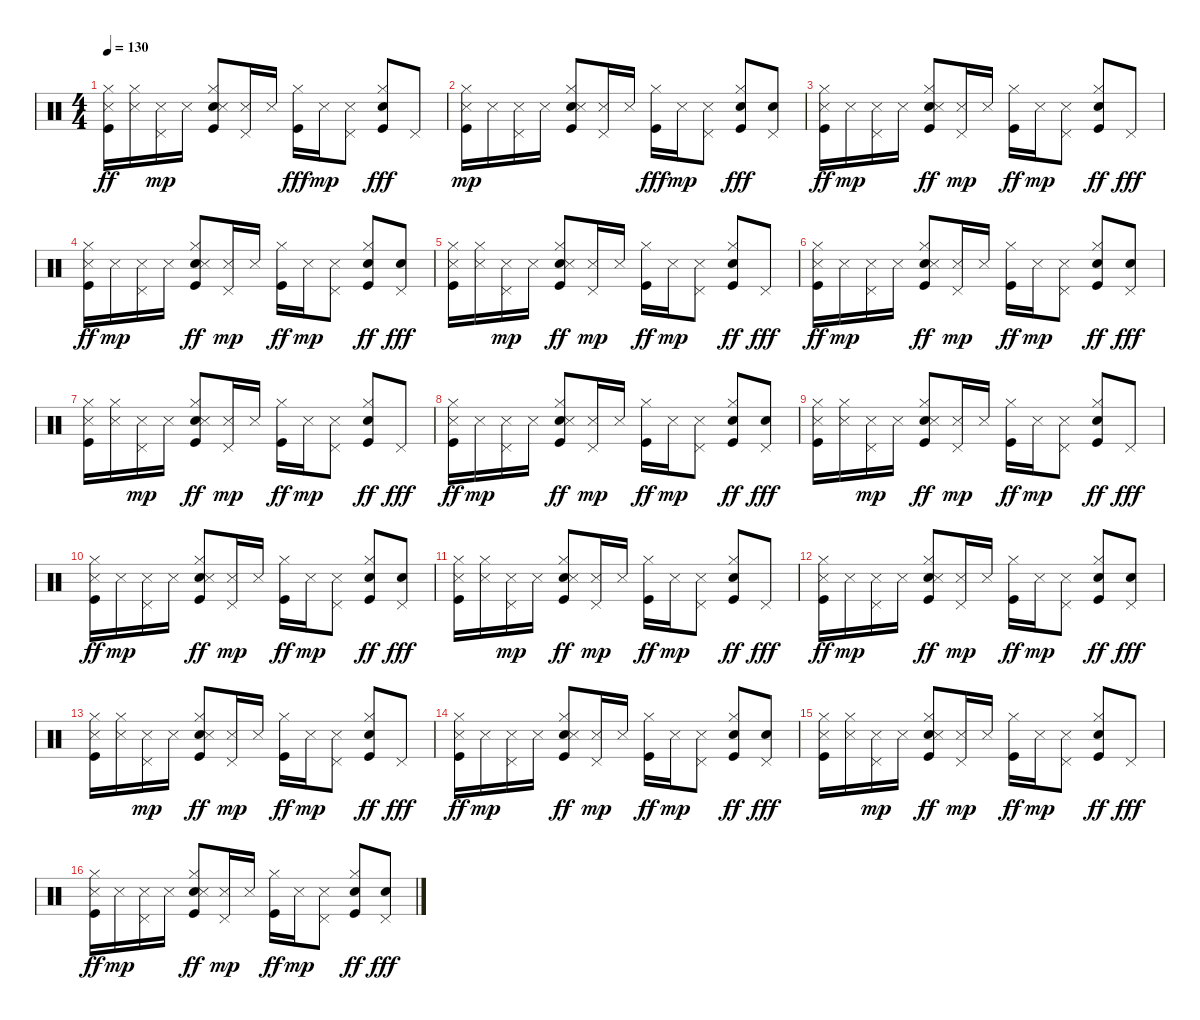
\track "" {instrument percussion}
\staff {score}
\articulation defaults
\ts (4 4)
\tempo 130
\clef neutral
\ks c
("Kick (hit)" "Snare (side stick) 3" "Hi-Hat (closed)").16{dy ff} ("Snare (side stick) 3" "Hi-Hat (closed)").16 ("Pedal Hi-Hat (hit)" "Snare (side stick) 3").16{dy mp} "Snare (side stick) 3".16 ("Hand Clap (hit)" "Kick (hit)" "Snare (side stick) 3" "Hi-Hat (closed)").8 ("Pedal Hi-Hat (hit)" "Snare (side stick) 3").16 "Snare (side stick) 3".16 ("Kick (hit)" "Hi-Hat (closed)").16{dy fff} "Snare (side stick) 3".16{dy mp} ("Pedal Hi-Hat (hit)" "Snare (side stick) 3").8 ("Hand Clap (hit)" "Kick (hit)" "Hi-Hat (closed)").8{dy fff} "Pedal Hi-Hat (hit)".8 |
("Kick (hit)" "Snare (side stick) 3" "Hi-Hat (closed)").16{dy mp} "Snare (side stick) 3".16 ("Pedal Hi-Hat (hit)" "Snare (side stick) 3").16 "Snare (side stick) 3".16 ("Hand Clap (hit)" "Kick (hit)" "Snare (side stick) 3" "Hi-Hat (closed)").8 ("Pedal Hi-Hat (hit)" "Snare (side stick) 3").16 "Snare (side stick) 3".16 ("Kick (hit)" "Hi-Hat (closed)").16{dy fff} "Snare (side stick) 3".16{dy mp} ("Pedal Hi-Hat (hit)" "Snare (side stick) 3").8 ("Hand Clap (hit)" "Kick (hit)" "Hi-Hat (closed)").8{dy fff} ("Hand Clap (hit)" "Pedal Hi-Hat (hit)").8 |
("Kick (hit)" "Snare (side stick) 3" "Hi-Hat (closed)").16{dy ff} "Snare (side stick) 3".16{dy mp} ("Pedal Hi-Hat (hit)" "Snare (side stick) 3").16 "Snare (side stick) 3".16 ("Hand Clap (hit)" "Kick (hit)" "Snare (side stick) 3" "Hi-Hat (closed)").8{dy ff} ("Pedal Hi-Hat (hit)" "Snare (side stick) 3").16{dy mp} "Snare (side stick) 3".16 ("Kick (hit)" "Hi-Hat (closed)").16{dy ff} "Snare (side stick) 3".16{dy mp} ("Pedal Hi-Hat (hit)" "Snare (side stick) 3").8 ("Hand Clap (hit)" "Kick (hit)" "Hi-Hat (closed)").8{dy ff} "Pedal Hi-Hat (hit)".8{dy fff} |
("Kick (hit)" "Snare (side stick) 3" "Hi-Hat (closed)").16{dy ff} "Snare (side stick) 3".16{dy mp} ("Pedal Hi-Hat (hit)" "Snare (side stick) 3").16 "Snare (side stick) 3".16 ("Hand Clap (hit)" "Kick (hit)" "Snare (side stick) 3" "Hi-Hat (closed)").8{dy ff} ("Pedal Hi-Hat (hit)" "Snare (side stick) 3").16{dy mp} "Snare (side stick) 3".16 ("Kick (hit)" "Hi-Hat (closed)").16{dy ff} "Snare (side stick) 3".16{dy mp} ("Pedal Hi-Hat (hit)" "Snare (side stick) 3").8 ("Hand Clap (hit)" "Kick (hit)" "Hi-Hat (closed)").8{dy ff} ("Hand Clap (hit)" "Pedal Hi-Hat (hit)").8{dy fff} |
("Kick (hit)" "Snare (side stick) 3" "Hi-Hat (closed)").16 ("Snare (side stick) 3" "Hi-Hat (closed)").16 ("Pedal Hi-Hat (hit)" "Snare (side stick) 3").16{dy mp} "Snare (side stick) 3".16 ("Hand Clap (hit)" "Kick (hit)" "Snare (side stick) 3" "Hi-Hat (closed)").8{dy ff} ("Pedal Hi-Hat (hit)" "Snare (side stick) 3").16{dy mp} "Snare (side stick) 3".16 ("Kick (hit)" "Hi-Hat (closed)").16{dy ff} "Snare (side stick) 3".16{dy mp} ("Pedal Hi-Hat (hit)" "Snare (side stick) 3").8 ("Hand Clap (hit)" "Kick (hit)" "Hi-Hat (closed)").8{dy ff} "Pedal Hi-Hat (hit)".8{dy fff} |
("Kick (hit)" "Snare (side stick) 3" "Hi-Hat (closed)").16{dy ff} "Snare (side stick) 3".16{dy mp} ("Pedal Hi-Hat (hit)" "Snare (side stick) 3").16 "Snare (side stick) 3".16 ("Hand Clap (hit)" "Kick (hit)" "Snare (side stick) 3" "Hi-Hat (closed)").8{dy ff} ("Pedal Hi-Hat (hit)" "Snare (side stick) 3").16{dy mp} "Snare (side stick) 3".16 ("Kick (hit)" "Hi-Hat (closed)").16{dy ff} "Snare (side stick) 3".16{dy mp} ("Pedal Hi-Hat (hit)" "Snare (side stick) 3").8 ("Hand Clap (hit)" "Kick (hit)" "Hi-Hat (closed)").8{dy ff} ("Hand Clap (hit)" "Pedal Hi-Hat (hit)").8{dy fff} |
("Kick (hit)" "Snare (side stick) 3" "Hi-Hat (closed)").16 ("Snare (side stick) 3" "Hi-Hat (closed)").16 ("Pedal Hi-Hat (hit)" "Snare (side stick) 3").16{dy mp} "Snare (side stick) 3".16 ("Hand Clap (hit)" "Kick (hit)" "Snare (side stick) 3" "Hi-Hat (closed)").8{dy ff} ("Pedal Hi-Hat (hit)" "Snare (side stick) 3").16{dy mp} "Snare (side stick) 3".16 ("Kick (hit)" "Hi-Hat (closed)").16{dy ff} "Snare (side stick) 3".16{dy mp} ("Pedal Hi-Hat (hit)" "Snare (side stick) 3").8 ("Hand Clap (hit)" "Kick (hit)" "Hi-Hat (closed)").8{dy ff} "Pedal Hi-Hat (hit)".8{dy fff} |
("Kick (hit)" "Snare (side stick) 3" "Hi-Hat (closed)").16{dy ff} "Snare (side stick) 3".16{dy mp} ("Pedal Hi-Hat (hit)" "Snare (side stick) 3").16 "Snare (side stick) 3".16 ("Hand Clap (hit)" "Kick (hit)" "Snare (side stick) 3" "Hi-Hat (closed)").8{dy ff} ("Pedal Hi-Hat (hit)" "Snare (side stick) 3").16{dy mp} "Snare (side stick) 3".16 ("Kick (hit)" "Hi-Hat (closed)").16{dy ff} "Snare (side stick) 3".16{dy mp} ("Pedal Hi-Hat (hit)" "Snare (side stick) 3").8 ("Hand Clap (hit)" "Kick (hit)" "Hi-Hat (closed)").8{dy ff} ("Hand Clap (hit)" "Pedal Hi-Hat (hit)").8{dy fff} |
("Kick (hit)" "Snare (side stick) 3" "Hi-Hat (closed)").16 ("Snare (side stick) 3" "Hi-Hat (closed)").16 ("Pedal Hi-Hat (hit)" "Snare (side stick) 3").16{dy mp} "Snare (side stick) 3".16 ("Hand Clap (hit)" "Kick (hit)" "Snare (side stick) 3" "Hi-Hat (closed)").8{dy ff} ("Pedal Hi-Hat (hit)" "Snare (side stick) 3").16{dy mp} "Snare (side stick) 3".16 ("Kick (hit)" "Hi-Hat (closed)").16{dy ff} "Snare (side stick) 3".16{dy mp} ("Pedal Hi-Hat (hit)" "Snare (side stick) 3").8 ("Hand Clap (hit)" "Kick (hit)" "Hi-Hat (closed)").8{dy ff} "Pedal Hi-Hat (hit)".8{dy fff} |
("Kick (hit)" "Snare (side stick) 3" "Hi-Hat (closed)").16{dy ff} "Snare (side stick) 3".16{dy mp} ("Pedal Hi-Hat (hit)" "Snare (side stick) 3").16 "Snare (side stick) 3".16 ("Hand Clap (hit)" "Kick (hit)" "Snare (side stick) 3" "Hi-Hat (closed)").8{dy ff} ("Pedal Hi-Hat (hit)" "Snare (side stick) 3").16{dy mp} "Snare (side stick) 3".16 ("Kick (hit)" "Hi-Hat (closed)").16{dy ff} "Snare (side stick) 3".16{dy mp} ("Pedal Hi-Hat (hit)" "Snare (side stick) 3").8 ("Hand Clap (hit)" "Kick (hit)" "Hi-Hat (closed)").8{dy ff} ("Hand Clap (hit)" "Pedal Hi-Hat (hit)").8{dy fff} |
("Kick (hit)" "Snare (side stick) 3" "Hi-Hat (closed)").16 ("Snare (side stick) 3" "Hi-Hat (closed)").16 ("Pedal Hi-Hat (hit)" "Snare (side stick) 3").16{dy mp} "Snare (side stick) 3".16 ("Hand Clap (hit)" "Kick (hit)" "Snare (side stick) 3" "Hi-Hat (closed)").8{dy ff} ("Pedal Hi-Hat (hit)" "Snare (side stick) 3").16{dy mp} "Snare (side stick) 3".16 ("Kick (hit)" "Hi-Hat (closed)").16{dy ff} "Snare (side stick) 3".16{dy mp} ("Pedal Hi-Hat (hit)" "Snare (side stick) 3").8 ("Hand Clap (hit)" "Kick (hit)" "Hi-Hat (closed)").8{dy ff} "Pedal Hi-Hat (hit)".8{dy fff} |
("Kick (hit)" "Snare (side stick) 3" "Hi-Hat (closed)").16{dy ff} "Snare (side stick) 3".16{dy mp} ("Pedal Hi-Hat (hit)" "Snare (side stick) 3").16 "Snare (side stick) 3".16 ("Hand Clap (hit)" "Kick (hit)" "Snare (side stick) 3" "Hi-Hat (closed)").8{dy ff} ("Pedal Hi-Hat (hit)" "Snare (side stick) 3").16{dy mp} "Snare (side stick) 3".16 ("Kick (hit)" "Hi-Hat (closed)").16{dy ff} "Snare (side stick) 3".16{dy mp} ("Pedal Hi-Hat (hit)" "Snare (side stick) 3").8 ("Hand Clap (hit)" "Kick (hit)" "Hi-Hat (closed)").8{dy ff} ("Hand Clap (hit)" "Pedal Hi-Hat (hit)").8{dy fff} |
("Kick (hit)" "Snare (side stick) 3" "Hi-Hat (closed)").16 ("Snare (side stick) 3" "Hi-Hat (closed)").16 ("Pedal Hi-Hat (hit)" "Snare (side stick) 3").16{dy mp} "Snare (side stick) 3".16 ("Hand Clap (hit)" "Kick (hit)" "Snare (side stick) 3" "Hi-Hat (closed)").8{dy ff} ("Pedal Hi-Hat (hit)" "Snare (side stick) 3").16{dy mp} "Snare (side stick) 3".16 ("Kick (hit)" "Hi-Hat (closed)").16{dy ff} "Snare (side stick) 3".16{dy mp} ("Pedal Hi-Hat (hit)" "Snare (side stick) 3").8 ("Hand Clap (hit)" "Kick (hit)" "Hi-Hat (closed)").8{dy ff} "Pedal Hi-Hat (hit)".8{dy fff} |
("Kick (hit)" "Snare (side stick) 3" "Hi-Hat (closed)").16{dy ff} "Snare (side stick) 3".16{dy mp} ("Pedal Hi-Hat (hit)" "Snare (side stick) 3").16 "Snare (side stick) 3".16 ("Hand Clap (hit)" "Kick (hit)" "Snare (side stick) 3" "Hi-Hat (closed)").8{dy ff} ("Pedal Hi-Hat (hit)" "Snare (side stick) 3").16{dy mp} "Snare (side stick) 3".16 ("Kick (hit)" "Hi-Hat (closed)").16{dy ff} "Snare (side stick) 3".16{dy mp} ("Pedal Hi-Hat (hit)" "Snare (side stick) 3").8 ("Hand Clap (hit)" "Kick (hit)" "Hi-Hat (closed)").8{dy ff} ("Hand Clap (hit)" "Pedal Hi-Hat (hit)").8{dy fff} |
("Kick (hit)" "Snare (side stick) 3" "Hi-Hat (closed)").16 ("Snare (side stick) 3" "Hi-Hat (closed)").16 ("Pedal Hi-Hat (hit)" "Snare (side stick) 3").16{dy mp} "Snare (side stick) 3".16 ("Hand Clap (hit)" "Kick (hit)" "Snare (side stick) 3" "Hi-Hat (closed)").8{dy ff} ("Pedal Hi-Hat (hit)" "Snare (side stick) 3").16{dy mp} "Snare (side stick) 3".16 ("Kick (hit)" "Hi-Hat (closed)").16{dy ff} "Snare (side stick) 3".16{dy mp} ("Pedal Hi-Hat (hit)" "Snare (side stick) 3").8 ("Hand Clap (hit)" "Kick (hit)" "Hi-Hat (closed)").8{dy ff} "Pedal Hi-Hat (hit)".8{dy fff} |
("Kick (hit)" "Snare (side stick) 3" "Hi-Hat (closed)").16{dy ff} "Snare (side stick) 3".16{dy mp} ("Pedal Hi-Hat (hit)" "Snare (side stick) 3").16 "Snare (side stick) 3".16 ("Hand Clap (hit)" "Kick (hit)" "Snare (side stick) 3" "Hi-Hat (closed)").8{dy ff} ("Pedal Hi-Hat (hit)" "Snare (side stick) 3").16{dy mp} "Snare (side stick) 3".16 ("Kick (hit)" "Hi-Hat (closed)").16{dy ff} "Snare (side stick) 3".16{dy mp} ("Pedal Hi-Hat (hit)" "Snare (side stick) 3").8 ("Hand Clap (hit)" "Kick (hit)" "Hi-Hat (closed)").8{dy ff} ("Hand Clap (hit)" "Pedal Hi-Hat (hit)").8{dy fff}
